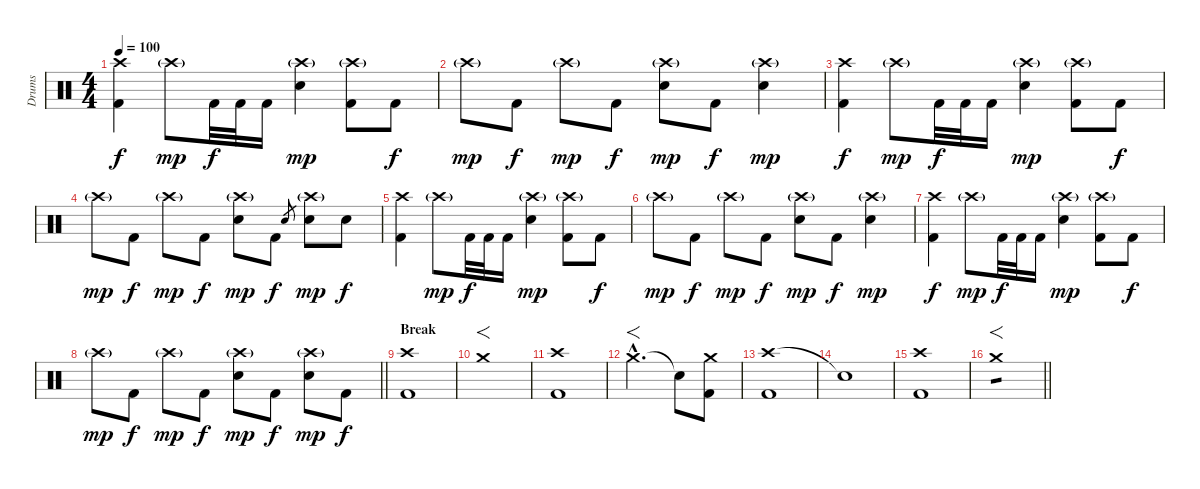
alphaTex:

\track ("Drums" "Drums") {instrument percussion}
\staff {score}
\articulation defaults
\ts (4 4)
\tempo 100
\clef neutral
\ks c
("Crash high (hit)" "Kick (hit) 2").4{dy f} "Crash high (hit)"{g}.8{dy mp} "Kick (hit) 2".32{dy f} "Kick (hit) 2".32 "Kick (hit) 2".16 ("Crash high (hit)"{g} "Snare (hit) 2").4{dy mp} ("Crash high (hit)"{g} "Kick (hit) 2").8 "Kick (hit) 2".8{dy f} |
"Crash high (hit)"{g}.8{dy mp} "Kick (hit) 2".8{dy f} "Crash high (hit)"{g}.8{dy mp} "Kick (hit) 2".8{dy f} ("Crash high (hit)"{g} "Snare (hit) 2").8{dy mp} "Kick (hit) 2".8{dy f} ("Crash high (hit)"{g} "Snare (hit) 2").4{dy mp} |
("Crash high (hit)" "Kick (hit) 2").4{dy f} "Crash high (hit)"{g}.8{dy mp} "Kick (hit) 2".32{dy f} "Kick (hit) 2".32 "Kick (hit) 2".16 ("Crash high (hit)"{g} "Snare (hit) 2").4{dy mp} ("Crash high (hit)"{g} "Kick (hit) 2").8 "Kick (hit) 2".8{dy f} |
"Crash high (hit)"{g}.8{dy mp} "Kick (hit) 2".8{dy f} "Crash high (hit)"{g}.8{dy mp} "Kick (hit) 2".8{dy f} ("Crash high (hit)"{g} "Snare (hit) 2").8{dy mp} "Kick (hit) 2".8{dy f} "Snare (hit) 2".8{gr} ("Crash high (hit)"{g} "Snare (hit) 2").8{dy mp} "Snare (hit) 2".8{dy f} |
("Crash high (hit)" "Kick (hit) 2").4 "Crash high (hit)"{g}.8{dy mp} "Kick (hit) 2".32{dy f} "Kick (hit) 2".32 "Kick (hit) 2".16 ("Crash high (hit)"{g} "Snare (hit) 2").4{dy mp} ("Crash high (hit)"{g} "Kick (hit) 2").8 "Kick (hit) 2".8{dy f} |
"Crash high (hit)"{g}.8{dy mp} "Kick (hit) 2".8{dy f} "Crash high (hit)"{g}.8{dy mp} "Kick (hit) 2".8{dy f} ("Crash high (hit)"{g} "Snare (hit) 2").8{dy mp} "Kick (hit) 2".8{dy f} ("Crash high (hit)"{g} "Snare (hit) 2").4{dy mp} |
("Crash high (hit)" "Kick (hit) 2").4{dy f} "Crash high (hit)"{g}.8{dy mp} "Kick (hit) 2".32{dy f} "Kick (hit) 2".32 "Kick (hit) 2".16 ("Crash high (hit)"{g} "Snare (hit) 2").4{dy mp} ("Crash high (hit)"{g} "Kick (hit) 2").8 "Kick (hit) 2".8{dy f} |
\barLineRight lightlight "Crash high (hit)"{g}.8{dy mp} "Kick (hit) 2".8{dy f} "Crash high (hit)"{g}.8{dy mp} "Kick (hit) 2".8{dy f}
("Crash high (hit)"{g} "Snare (hit) 2").8{dy mp} "Kick (hit) 2".8{dy f} ("Crash high (hit)"{g} "Snare (hit) 2").8{dy mp} "Kick (hit) 2".8{dy f} |
\section ("" "Break")
("Crash high (hit)" "Kick (hit) 2").1 |
"Crash medium (hit)".1{f} |
("Crash high (hit)" "Kick (hit) 2").1 |
"Crash medium (hit)"{hac}.2{f d} "Snare (hit)"{t}.8 ("Crash medium (hit)" "Kick (hit) 2").8 |
("Crash high (hit)" "Kick (hit) 2").1 |
"Snare (hit)"{t}.1 |
("Crash high (hit)" "Kick (hit) 2").1 |
\barLineRight lightlight "Crash medium (hit)".1{f tp 1}
